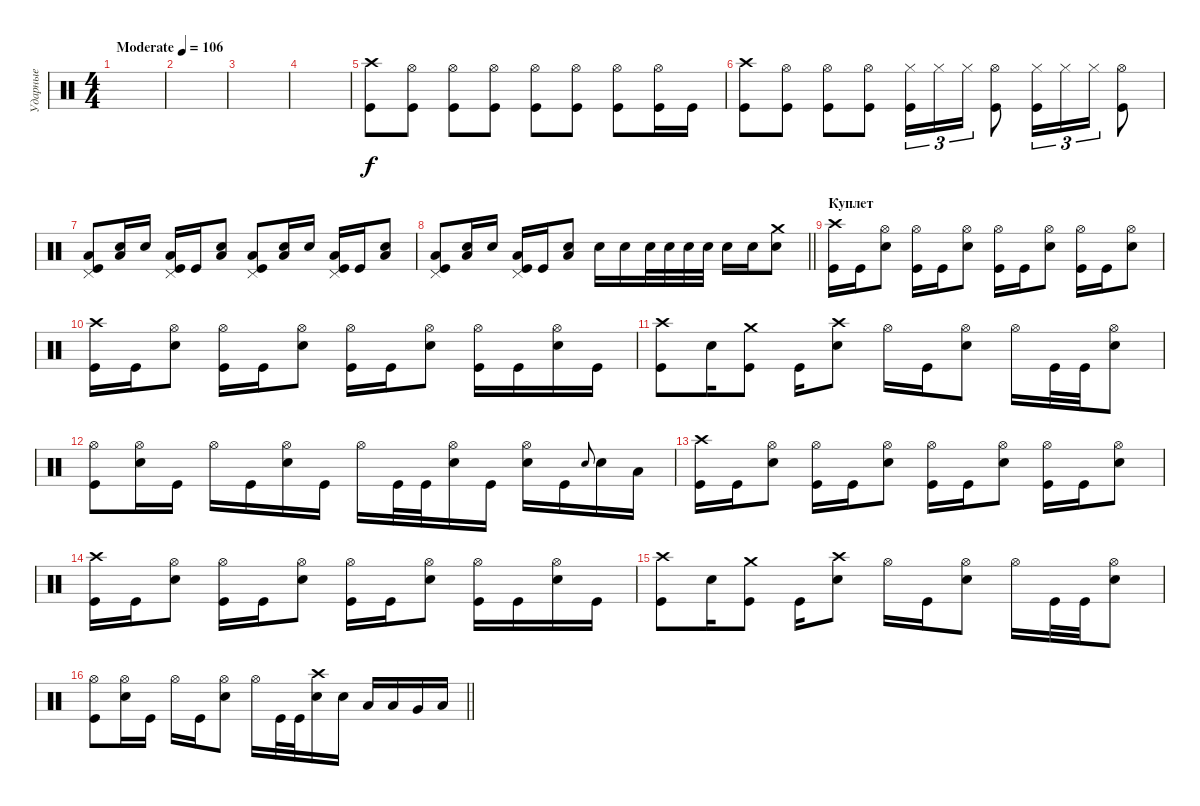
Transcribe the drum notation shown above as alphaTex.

\track ("Ударные" "Ударные") {instrument percussion}
\staff {score}
\articulation defaults
\ts (4 4)
\tempo (106 "Moderate")
\clef neutral
\ks c
|
|
|
|
("Crash high (hit)" "Kick (hit)").8 ("Hi-Hat (open)" "Kick (hit)").8 ("Hi-Hat (open)" "Kick (hit)").8 ("Hi-Hat (open)" "Kick (hit)").8 ("Hi-Hat (open)" "Kick (hit)").8 ("Hi-Hat (open)" "Kick (hit)").8 ("Hi-Hat (open)" "Kick (hit)").8 ("Hi-Hat (open)" "Kick (hit)").16 "Kick (hit)".16 |
("Crash high (hit)" "Kick (hit)").8 ("Hi-Hat (open)" "Kick (hit)").8 ("Hi-Hat (open)" "Kick (hit)").8 ("Hi-Hat (open)" "Kick (hit)").8 ("Hi-Hat (closed)" "Kick (hit)").16{tu (3 2)} "Hi-Hat (closed)".16{tu (3 2)} "Hi-Hat (closed)".16{tu (3 2)} ("Hi-Hat (open)" "Kick (hit)").8 ("Hi-Hat (closed)" "Kick (hit)").16{tu (3 2)} "Hi-Hat (closed)".16{tu (3 2)} "Hi-Hat (closed)".16{tu (3 2)} ("Hi-Hat (open)" "Kick (hit)").8 |
("Low Floor Tom (hit)" "Kick (hit)" "Pedal Hi-Hat (hit)").8 ("Low Floor Tom (hit)" "Snare (hit) 2").16 "Snare (hit) 2".16 ("Low Floor Tom (hit)" "Kick (hit)" "Pedal Hi-Hat (hit)").16 "Kick (hit)".16 ("Low Floor Tom (hit)" "Snare (hit) 2").8 ("Low Floor Tom (hit)" "Kick (hit)" "Pedal Hi-Hat (hit)").8 ("Low Floor Tom (hit)" "Snare (hit) 2").16 "Snare (hit) 2".16 ("Low Floor Tom (hit)" "Kick (hit)" "Pedal Hi-Hat (hit)").16 "Kick (hit)".16 ("Low Floor Tom (hit)" "Snare (hit) 2").8 |
\barLineRight lightlight
("Low Floor Tom (hit)" "Kick (hit)" "Pedal Hi-Hat (hit)").8 ("Low Floor Tom (hit)" "Snare (hit) 2").16 "Snare (hit) 2".16 ("Low Floor Tom (hit)" "Kick (hit)" "Pedal Hi-Hat (hit)").16 "Kick (hit)".16 ("Low Floor Tom (hit)" "Snare (hit) 2").8 "Snare (hit) 2".16 "Snare (hit) 2".16 "Snare (hit) 2".32 "Snare (hit) 2".32 "Snare (hit) 2".32 "Snare (hit) 2".32 "Snare (hit) 2".16 "Snare (hit) 2".16 ("Crash medium (hit)" "Snare (hit) 2").8 |
\section ("" "Куплет")
("Crash high (hit)" "Kick (hit)").16 "Kick (hit)".16 ("Hi-Hat (open)" "Snare (hit) 2").8 ("Hi-Hat (open)" "Kick (hit)").16 "Kick (hit)".16 ("Hi-Hat (open)" "Snare (hit) 2").8 ("Hi-Hat (open)" "Kick (hit)").16 "Kick (hit)".16 ("Hi-Hat (open)" "Snare (hit) 2").8 ("Hi-Hat (open)" "Kick (hit)").16 "Kick (hit)".16 ("Hi-Hat (open)" "Snare (hit) 2").8 |
("Crash high (hit)" "Kick (hit)").16 "Kick (hit)".16 ("Hi-Hat (open)" "Snare (hit) 2").8 ("Hi-Hat (open)" "Kick (hit)").16 "Kick (hit)".16 ("Hi-Hat (open)" "Snare (hit) 2").8 ("Hi-Hat (open)" "Kick (hit)").16 "Kick (hit)".16 ("Hi-Hat (open)" "Snare (hit) 2").8 ("Hi-Hat (open)" "Kick (hit)").16 "Kick (hit)".16 ("Hi-Hat (open)" "Snare (hit) 2").16 "Kick (hit)".16 |
("Crash high (hit)" "Kick (hit)").8 "Snare (hit) 2".16 ("Crash medium (hit)" "Kick (hit)").8 "Kick (hit)".16 ("Crash high (hit)" "Snare (hit) 2").8 "Hi-Hat (open)".16 "Kick (hit)".16 ("Hi-Hat (open)" "Snare (hit) 2").8 "Hi-Hat (open)".16 "Kick (hit)".32 "Kick (hit)".32 ("Hi-Hat (open)" "Snare (hit) 2").8 |
("Hi-Hat (open)" "Kick (hit)").8 ("Hi-Hat (open)" "Snare (hit) 2").16 "Kick (hit)".16 "Hi-Hat (open)".16 "Kick (hit)".16 ("Hi-Hat (open)" "Snare (hit) 2").16 "Kick (hit)".16 "Hi-Hat (open)".16 "Kick (hit)".32 "Kick (hit)".32 ("Hi-Hat (open)" "Snare (hit) 2").16 "Kick (hit)".16 ("Hi-Hat (open)" "Snare (hit) 2").16 "Kick (hit)".16 "Snare (hit) 2".8{gr onbeat} "Snare (hit) 2".16 "Low Tom (hit)".16 |
("Crash high (hit)" "Kick (hit)").16 "Kick (hit)".16 ("Hi-Hat (open)" "Snare (hit) 2").8 ("Hi-Hat (open)" "Kick (hit)").16 "Kick (hit)".16 ("Hi-Hat (open)" "Snare (hit) 2").8 ("Hi-Hat (open)" "Kick (hit)").16 "Kick (hit)".16 ("Hi-Hat (open)" "Snare (hit) 2").8 ("Hi-Hat (open)" "Kick (hit)").16 "Kick (hit)".16 ("Hi-Hat (open)" "Snare (hit) 2").8 |
("Crash high (hit)" "Kick (hit)").16 "Kick (hit)".16 ("Hi-Hat (open)" "Snare (hit) 2").8 ("Hi-Hat (open)" "Kick (hit)").16 "Kick (hit)".16 ("Hi-Hat (open)" "Snare (hit) 2").8 ("Hi-Hat (open)" "Kick (hit)").16 "Kick (hit)".16 ("Hi-Hat (open)" "Snare (hit) 2").8 ("Hi-Hat (open)" "Kick (hit)").16 "Kick (hit)".16 ("Hi-Hat (open)" "Snare (hit) 2").16 "Kick (hit)".16 |
("Crash high (hit)" "Kick (hit)").8 "Snare (hit) 2".16 ("Crash medium (hit)" "Kick (hit)").8 "Kick (hit)".16 ("Crash high (hit)" "Snare (hit) 2").8 "Hi-Hat (open)".16 "Kick (hit)".16 ("Hi-Hat (open)" "Snare (hit) 2").8 "Hi-Hat (open)".16 "Kick (hit)".32 "Kick (hit)".32 ("Hi-Hat (open)" "Snare (hit) 2").8 |
\barLineRight lightlight
("Hi-Hat (open)" "Kick (hit)").8 ("Hi-Hat (open)" "Snare (hit) 2").16 "Kick (hit)".16 "Hi-Hat (open)".16 "Kick (hit)".16 ("Hi-Hat (open)" "Snare (hit) 2").8 "Hi-Hat (open)".16 "Kick (hit)".32 "Kick (hit)".32 ("Crash high (hit)" "Snare (hit) 2").16 "Snare (hit) 2".16 "Low Tom (hit)".16 "Low Tom (hit)".16 "Very Low Tom (hit)".16 "Low Floor Tom (hit)".16
